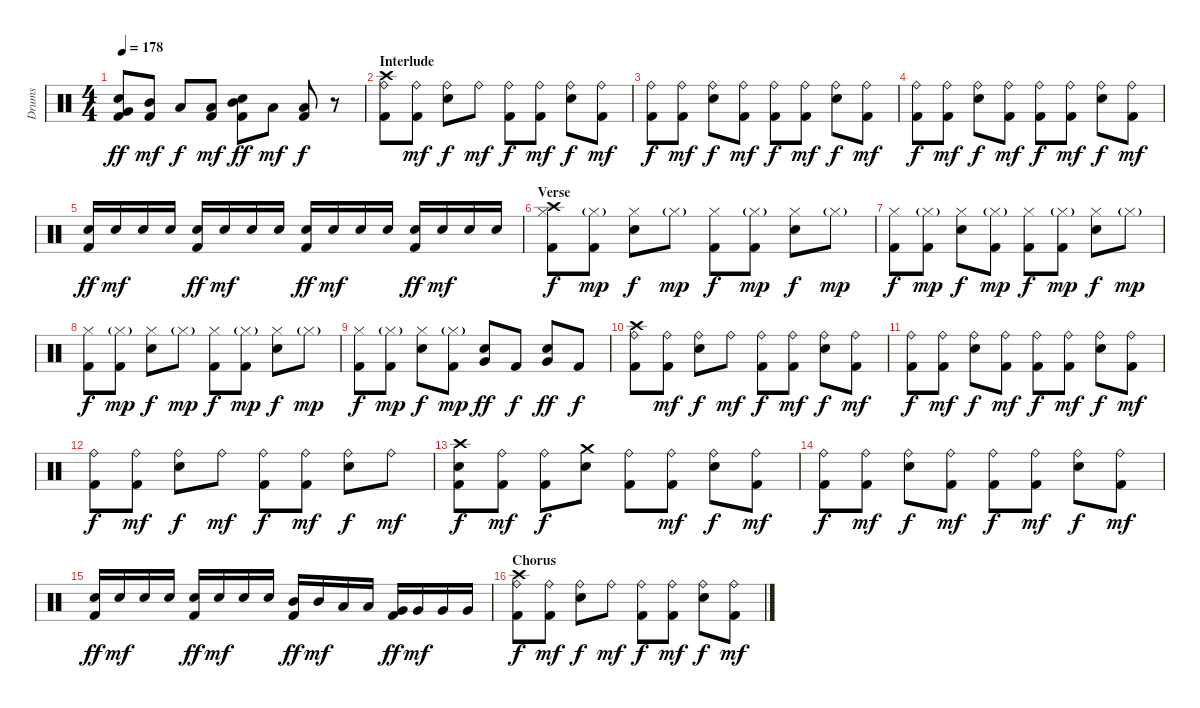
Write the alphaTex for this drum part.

\track ("Drums" "Drums") {instrument percussion}
\staff {score}
\articulation defaults
\ts (4 4)
\tempo 178
\clef neutral
\ks c
("Very Low Tom (hit)" "Electric Snare (hit)" "Kick (hit) 2").8{dy ff} ("Mid Tom (hit)" "Kick (hit) 2").8{dy mf} "Low Tom (hit)".8{dy f} ("Low Tom (hit)" "Kick (hit) 2").8{dy mf} ("Mid Tom (hit)" "Electric Snare (hit)" "Kick (hit) 2").8{dy ff} "Low Tom (hit)".8{dy mf} ("Low Tom (hit)" "Kick (hit) 2").8{dy f} r.8 |
\section ("" "Interlude")
("Crash high (hit)" "Ride (bell)" "Kick (hit) 2").8 ("Ride (bell)" "Kick (hit) 2").8{dy mf} ("Ride (bell)" "Electric Snare (hit)").8{dy f} "Ride (bell)".8{dy mf} ("Ride (bell)" "Kick (hit) 2").8{dy f} ("Ride (bell)" "Kick (hit) 2").8{dy mf} ("Ride (bell)" "Electric Snare (hit)").8{dy f} ("Ride (bell)" "Kick (hit) 2").8{dy mf} |
("Ride (bell)" "Kick (hit) 2").8{dy f} ("Ride (bell)" "Kick (hit) 2").8{dy mf} ("Ride (bell)" "Electric Snare (hit)").8{dy f} ("Ride (bell)" "Kick (hit) 2").8{dy mf} ("Ride (bell)" "Kick (hit) 2").8{dy f} ("Ride (bell)" "Kick (hit) 2").8{dy mf} ("Ride (bell)" "Electric Snare (hit)").8{dy f} ("Ride (bell)" "Kick (hit) 2").8{dy mf} |
("Ride (bell)" "Kick (hit) 2").8{dy f} ("Ride (bell)" "Kick (hit) 2").8{dy mf} ("Ride (bell)" "Electric Snare (hit)").8{dy f} ("Ride (bell)" "Kick (hit) 2").8{dy mf} ("Ride (bell)" "Kick (hit) 2").8{dy f} ("Ride (bell)" "Kick (hit) 2").8{dy mf} ("Ride (bell)" "Electric Snare (hit)").8{dy f} ("Ride (bell)" "Kick (hit) 2").8{dy mf} |
("Electric Snare (hit)" "Kick (hit) 2").16{dy ff} "Electric Snare (hit)".16{dy mf} "Electric Snare (hit)".16 "Electric Snare (hit)".16 ("Electric Snare (hit)" "Kick (hit) 2").16{dy ff} "Electric Snare (hit)".16{dy mf} "Electric Snare (hit)".16 "Electric Snare (hit)".16 ("Electric Snare (hit)" "Kick (hit) 2").16{dy ff} "Electric Snare (hit)".16{dy mf} "Electric Snare (hit)".16 "Electric Snare (hit)".16 ("Electric Snare (hit)" "Kick (hit) 2").16{dy ff} "Electric Snare (hit)".16{dy mf} "Electric Snare (hit)".16 "Electric Snare (hit)".16 |
\section ("" "Verse")
("Crash high (hit)" "Hi-Hat (closed)" "Kick (hit) 2").8{dy f} ("Hi-Hat (closed)"{g} "Kick (hit) 2").8{dy mp} ("Hi-Hat (closed)" "Electric Snare (hit)").8{dy f} "Hi-Hat (closed)"{g}.8{dy mp} ("Hi-Hat (closed)" "Kick (hit) 2").8{dy f} ("Hi-Hat (closed)"{g} "Kick (hit) 2").8{dy mp} ("Hi-Hat (closed)" "Electric Snare (hit)").8{dy f} "Hi-Hat (closed)"{g}.8{dy mp} |
("Hi-Hat (closed)" "Kick (hit) 2").8{dy f} ("Hi-Hat (closed)"{g} "Kick (hit) 2").8{dy mp} ("Hi-Hat (closed)" "Electric Snare (hit)").8{dy f} ("Hi-Hat (closed)"{g} "Kick (hit) 2").8{dy mp} ("Hi-Hat (closed)" "Kick (hit) 2").8{dy f} ("Hi-Hat (closed)"{g} "Kick (hit) 2").8{dy mp} ("Hi-Hat (closed)" "Electric Snare (hit)").8{dy f} "Hi-Hat (closed)"{g}.8{dy mp} |
("Hi-Hat (closed)" "Kick (hit) 2").8{dy f} ("Hi-Hat (closed)"{g} "Kick (hit) 2").8{dy mp} ("Hi-Hat (closed)" "Electric Snare (hit)").8{dy f} "Hi-Hat (closed)"{g}.8{dy mp} ("Hi-Hat (closed)" "Kick (hit) 2").8{dy f} ("Hi-Hat (closed)"{g} "Kick (hit) 2").8{dy mp} ("Hi-Hat (closed)" "Electric Snare (hit)").8{dy f} "Hi-Hat (closed)"{g}.8{dy mp} |
("Hi-Hat (closed)" "Kick (hit) 2").8{dy f} ("Hi-Hat (closed)"{g} "Kick (hit) 2").8{dy mp} ("Hi-Hat (closed)" "Electric Snare (hit)").8{dy f} ("Hi-Hat (closed)"{g} "Kick (hit) 2").8{dy mp} ("Very Low Tom (hit)" "Electric Snare (hit)").8{dy ff} "Kick (hit) 2".8{dy f} ("Very Low Tom (hit)" "Electric Snare (hit)").8{dy ff} "Kick (hit) 2".8{dy f} |
("Crash high (hit)" "Ride (bell)" "Kick (hit) 2").8 ("Ride (bell)" "Kick (hit) 2").8{dy mf} ("Ride (bell)" "Electric Snare (hit)").8{dy f} "Ride (bell)".8{dy mf} ("Ride (bell)" "Kick (hit) 2").8{dy f} ("Ride (bell)" "Kick (hit) 2").8{dy mf} ("Ride (bell)" "Electric Snare (hit)").8{dy f} ("Ride (bell)" "Kick (hit) 2").8{dy mf} |
("Ride (bell)" "Kick (hit) 2").8{dy f} ("Ride (bell)" "Kick (hit) 2").8{dy mf} ("Ride (bell)" "Electric Snare (hit)").8{dy f} ("Ride (bell)" "Kick (hit) 2").8{dy mf} ("Ride (bell)" "Kick (hit) 2").8{dy f} ("Ride (bell)" "Kick (hit) 2").8{dy mf} ("Ride (bell)" "Electric Snare (hit)").8{dy f} ("Ride (bell)" "Kick (hit) 2").8{dy mf} |
("Ride (bell)" "Kick (hit) 2").8{dy f} ("Ride (bell)" "Kick (hit) 2").8{dy mf} ("Ride (bell)" "Electric Snare (hit)").8{dy f} "Ride (bell)".8{dy mf} ("Ride (bell)" "Kick (hit) 2").8{dy f} ("Ride (bell)" "Kick (hit) 2").8{dy mf} ("Ride (bell)" "Electric Snare (hit)").8{dy f} "Ride (bell)".8{dy mf} |
("Crash high (hit)" "Electric Snare (hit)" "Kick (hit) 2").8{dy f} ("Ride (bell)" "Kick (hit) 2").8{dy mf} ("Ride (bell)" "Kick (hit) 2").8{dy f} ("Crash medium (hit)" "Electric Snare (hit)").8 ("Ride (bell)" "Kick (hit) 2").8 ("Ride (bell)" "Kick (hit) 2").8{dy mf} ("Ride (bell)" "Electric Snare (hit)").8{dy f} ("Ride (bell)" "Kick (hit) 2").8{dy mf} |
("Ride (bell)" "Kick (hit) 2").8{dy f} ("Ride (bell)" "Kick (hit) 2").8{dy mf} ("Ride (bell)" "Electric Snare (hit)").8{dy f} ("Ride (bell)" "Kick (hit) 2").8{dy mf} ("Ride (bell)" "Kick (hit) 2").8{dy f} ("Ride (bell)" "Kick (hit) 2").8{dy mf} ("Ride (bell)" "Electric Snare (hit)").8{dy f} ("Ride (bell)" "Kick (hit) 2").8{dy mf} |
("Electric Snare (hit)" "Kick (hit) 2").16{dy ff} "Electric Snare (hit)".16{dy mf} "Electric Snare (hit)".16 "Electric Snare (hit)".16 ("Electric Snare (hit)" "Kick (hit) 2").16{dy ff} "Electric Snare (hit)".16{dy mf} "Electric Snare (hit)".16 "Electric Snare (hit)".16 ("Mid Tom (hit)" "Kick (hit) 2").16{dy ff} "Mid Tom (hit)".16{dy mf} "Low Tom (hit)".16 "Low Tom (hit)".16 ("Very Low Tom (hit)" "Kick (hit) 2").16{dy ff} "Very Low Tom (hit)".16{dy mf} "Very Low Tom (hit)".16 "Very Low Tom (hit)".16 |
\section ("" "Chorus")
("Crash high (hit)" "Ride (bell)" "Kick (hit) 2").8{dy f} ("Ride (bell)" "Kick (hit) 2").8{dy mf} ("Ride (bell)" "Electric Snare (hit)").8{dy f} "Ride (bell)".8{dy mf} ("Ride (bell)" "Kick (hit) 2").8{dy f} ("Ride (bell)" "Kick (hit) 2").8{dy mf} ("Ride (bell)" "Electric Snare (hit)").8{dy f} ("Ride (bell)" "Kick (hit) 2").8{dy mf}
